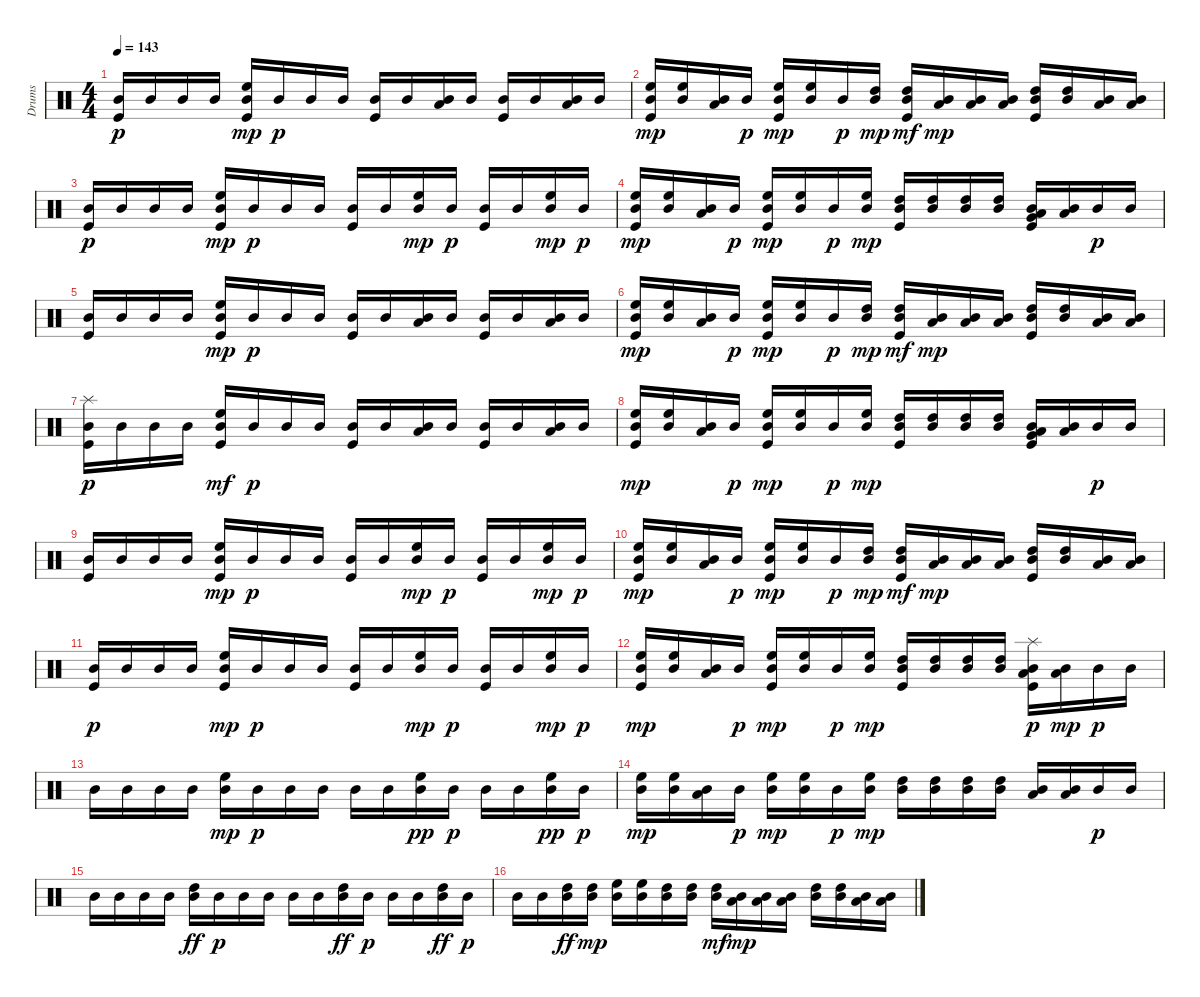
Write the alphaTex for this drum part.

\track ("Drums" "Drums") {instrument percussion}
\staff {score}
\articulation defaults
\ts (4 4)
\tempo 143
\clef neutral
\ks c
("Kick (hit)" "Mid Tom (hit)").16{dy p} "Mid Tom (hit)".16 "Mid Tom (hit)".16 "Mid Tom (hit)".16 ("Kick (hit)" "Mid Tom (hit)" "High Floor Tom (hit)").16{dy mp} "Mid Tom (hit)".16{dy p} "Mid Tom (hit)".16 "Mid Tom (hit)".16 ("Kick (hit)" "Mid Tom (hit)").16 "Mid Tom (hit)".16 ("Mid Tom (hit)" "Low Tom (hit)").16 "Mid Tom (hit)".16 ("Kick (hit)" "Mid Tom (hit)").16 "Mid Tom (hit)".16 ("Mid Tom (hit)" "Low Tom (hit)").16 "Mid Tom (hit)".16 |
("Kick (hit)" "Mid Tom (hit)" "High Floor Tom (hit)").16{dy mp} ("Mid Tom (hit)" "High Floor Tom (hit)").16 ("Mid Tom (hit)" "Low Tom (hit)").16 "Mid Tom (hit)".16{dy p} ("Kick (hit)" "Mid Tom (hit)" "High Floor Tom (hit)").16{dy mp} ("Mid Tom (hit)" "High Floor Tom (hit)").16 "Mid Tom (hit)".16{dy p} ("Mid Tom (hit)" "High Tom (hit)").16{dy mp} ("Kick (hit)" "Mid Tom (hit)" "High Tom (hit)").16{dy mf} ("Mid Tom (hit)" "Low Tom (hit)").16{dy mp} ("Mid Tom (hit)" "Low Tom (hit)").16 ("Mid Tom (hit)" "Low Tom (hit)").16 ("Kick (hit)" "Mid Tom (hit)" "High Tom (hit)").16 ("Mid Tom (hit)" "High Tom (hit)").16 ("Mid Tom (hit)" "Low Tom (hit)").16 ("Mid Tom (hit)" "Low Tom (hit)").16 |
("Kick (hit)" "Mid Tom (hit)").16{dy p} "Mid Tom (hit)".16 "Mid Tom (hit)".16 "Mid Tom (hit)".16 ("Kick (hit)" "Mid Tom (hit)" "High Floor Tom (hit)").16{dy mp} "Mid Tom (hit)".16{dy p} "Mid Tom (hit)".16 "Mid Tom (hit)".16 ("Kick (hit)" "Mid Tom (hit)").16 "Mid Tom (hit)".16 ("Mid Tom (hit)" "High Floor Tom (hit)").16{dy mp} "Mid Tom (hit)".16{dy p} ("Kick (hit)" "Mid Tom (hit)").16 "Mid Tom (hit)".16 ("Mid Tom (hit)" "High Floor Tom (hit)").16{dy mp} "Mid Tom (hit)".16{dy p} |
("Kick (hit)" "Mid Tom (hit)" "High Floor Tom (hit)").16{dy mp} ("Mid Tom (hit)" "High Floor Tom (hit)").16 ("Mid Tom (hit)" "Low Tom (hit)").16 "Mid Tom (hit)".16{dy p} ("Kick (hit)" "Mid Tom (hit)" "High Floor Tom (hit)").16{dy mp} ("Mid Tom (hit)" "High Floor Tom (hit)").16 "Mid Tom (hit)".16{dy p} ("Mid Tom (hit)" "High Floor Tom (hit)").16{dy mp} ("Kick (hit)" "Mid Tom (hit)" "High Tom (hit)").16 ("Mid Tom (hit)" "High Tom (hit)").16 ("Mid Tom (hit)" "High Tom (hit)").16 ("Mid Tom (hit)" "High Tom (hit)").16 ("Kick (hit)" "Mid Tom (hit)" "Low Tom (hit)" "Very Low Tom (hit)").16 ("Mid Tom (hit)" "Low Tom (hit)").16 "Mid Tom (hit)".16{dy p} "Mid Tom (hit)".16 |
("Kick (hit)" "Mid Tom (hit)").16 "Mid Tom (hit)".16 "Mid Tom (hit)".16 "Mid Tom (hit)".16 ("Kick (hit)" "Mid Tom (hit)" "High Floor Tom (hit)").16{dy mp} "Mid Tom (hit)".16{dy p} "Mid Tom (hit)".16 "Mid Tom (hit)".16 ("Kick (hit)" "Mid Tom (hit)").16 "Mid Tom (hit)".16 ("Mid Tom (hit)" "Low Tom (hit)").16 "Mid Tom (hit)".16 ("Kick (hit)" "Mid Tom (hit)").16 "Mid Tom (hit)".16 ("Mid Tom (hit)" "Low Tom (hit)").16 "Mid Tom (hit)".16 |
("Kick (hit)" "Mid Tom (hit)" "High Floor Tom (hit)").16{dy mp} ("Mid Tom (hit)" "High Floor Tom (hit)").16 ("Mid Tom (hit)" "Low Tom (hit)").16 "Mid Tom (hit)".16{dy p} ("Kick (hit)" "Mid Tom (hit)" "High Floor Tom (hit)").16{dy mp} ("Mid Tom (hit)" "High Floor Tom (hit)").16 "Mid Tom (hit)".16{dy p} ("Mid Tom (hit)" "High Tom (hit)").16{dy mp} ("Kick (hit)" "Mid Tom (hit)" "High Tom (hit)").16{dy mf} ("Mid Tom (hit)" "Low Tom (hit)").16{dy mp} ("Mid Tom (hit)" "Low Tom (hit)").16 ("Mid Tom (hit)" "Low Tom (hit)").16 ("Kick (hit)" "Mid Tom (hit)" "High Tom (hit)").16 ("Mid Tom (hit)" "High Tom (hit)").16 ("Mid Tom (hit)" "Low Tom (hit)").16 ("Mid Tom (hit)" "Low Tom (hit)").16 |
("Kick (hit)" "Mid Tom (hit)" "Splash (hit)").16{dy p} "Mid Tom (hit)".16 "Mid Tom (hit)".16 "Mid Tom (hit)".16 ("Kick (hit)" "Mid Tom (hit)" "High Floor Tom (hit)").16{dy mf} "Mid Tom (hit)".16{dy p} "Mid Tom (hit)".16 "Mid Tom (hit)".16 ("Kick (hit)" "Mid Tom (hit)").16 "Mid Tom (hit)".16 ("Mid Tom (hit)" "Low Tom (hit)").16 "Mid Tom (hit)".16 ("Kick (hit)" "Mid Tom (hit)").16 "Mid Tom (hit)".16 ("Mid Tom (hit)" "Low Tom (hit)").16 "Mid Tom (hit)".16 |
("Kick (hit)" "Mid Tom (hit)" "High Floor Tom (hit)").16{dy mp} ("Mid Tom (hit)" "High Floor Tom (hit)").16 ("Mid Tom (hit)" "Low Tom (hit)").16 "Mid Tom (hit)".16{dy p} ("Kick (hit)" "Mid Tom (hit)" "High Floor Tom (hit)").16{dy mp} ("Mid Tom (hit)" "High Floor Tom (hit)").16 "Mid Tom (hit)".16{dy p} ("Mid Tom (hit)" "High Floor Tom (hit)").16{dy mp} ("Kick (hit)" "Mid Tom (hit)" "High Tom (hit)").16 ("Mid Tom (hit)" "High Tom (hit)").16 ("Mid Tom (hit)" "High Tom (hit)").16 ("Mid Tom (hit)" "High Tom (hit)").16 ("Kick (hit)" "Mid Tom (hit)" "Low Tom (hit)" "Very Low Tom (hit)").16 ("Mid Tom (hit)" "Low Tom (hit)").16 "Mid Tom (hit)".16{dy p} "Mid Tom (hit)".16 |
("Kick (hit)" "Mid Tom (hit)").16 "Mid Tom (hit)".16 "Mid Tom (hit)".16 "Mid Tom (hit)".16 ("Kick (hit)" "Mid Tom (hit)" "High Floor Tom (hit)").16{dy mp} "Mid Tom (hit)".16{dy p} "Mid Tom (hit)".16 "Mid Tom (hit)".16 ("Kick (hit)" "Mid Tom (hit)").16 "Mid Tom (hit)".16 ("Mid Tom (hit)" "High Floor Tom (hit)").16{dy mp} "Mid Tom (hit)".16{dy p} ("Kick (hit)" "Mid Tom (hit)").16 "Mid Tom (hit)".16 ("Mid Tom (hit)" "High Floor Tom (hit)").16{dy mp} "Mid Tom (hit)".16{dy p} |
("Kick (hit)" "Mid Tom (hit)" "High Floor Tom (hit)").16{dy mp} ("Mid Tom (hit)" "High Floor Tom (hit)").16 ("Mid Tom (hit)" "Low Tom (hit)").16 "Mid Tom (hit)".16{dy p} ("Kick (hit)" "Mid Tom (hit)" "High Floor Tom (hit)").16{dy mp} ("Mid Tom (hit)" "High Floor Tom (hit)").16 "Mid Tom (hit)".16{dy p} ("Mid Tom (hit)" "High Tom (hit)").16{dy mp} ("Kick (hit)" "Mid Tom (hit)" "High Tom (hit)").16{dy mf} ("Mid Tom (hit)" "Low Tom (hit)").16{dy mp} ("Mid Tom (hit)" "Low Tom (hit)").16 ("Mid Tom (hit)" "Low Tom (hit)").16 ("Kick (hit)" "Mid Tom (hit)" "High Tom (hit)").16 ("Mid Tom (hit)" "High Tom (hit)").16 ("Mid Tom (hit)" "Low Tom (hit)").16 ("Mid Tom (hit)" "Low Tom (hit)").16 |
("Kick (hit)" "Mid Tom (hit)").16{dy p} "Mid Tom (hit)".16 "Mid Tom (hit)".16 "Mid Tom (hit)".16 ("Kick (hit)" "Mid Tom (hit)" "High Floor Tom (hit)").16{dy mp} "Mid Tom (hit)".16{dy p} "Mid Tom (hit)".16 "Mid Tom (hit)".16 ("Kick (hit)" "Mid Tom (hit)").16 "Mid Tom (hit)".16 ("Mid Tom (hit)" "High Floor Tom (hit)").16{dy mp} "Mid Tom (hit)".16{dy p} ("Kick (hit)" "Mid Tom (hit)").16 "Mid Tom (hit)".16 ("Mid Tom (hit)" "High Floor Tom (hit)").16{dy mp} "Mid Tom (hit)".16{dy p} |
("Kick (hit)" "Mid Tom (hit)" "High Floor Tom (hit)").16{dy mp} ("Mid Tom (hit)" "High Floor Tom (hit)").16 ("Mid Tom (hit)" "Low Tom (hit)").16 "Mid Tom (hit)".16{dy p} ("Kick (hit)" "Mid Tom (hit)" "High Floor Tom (hit)").16{dy mp} ("Mid Tom (hit)" "High Floor Tom (hit)").16 "Mid Tom (hit)".16{dy p} ("Mid Tom (hit)" "High Floor Tom (hit)").16{dy mp} ("Kick (hit)" "Mid Tom (hit)" "High Tom (hit)").16 ("Mid Tom (hit)" "High Tom (hit)").16 ("Mid Tom (hit)" "High Tom (hit)").16 ("Mid Tom (hit)" "High Tom (hit)").16 ("Kick (hit)" "Mid Tom (hit)" "Low Tom (hit)" "Splash (hit)").16{dy p} ("Mid Tom (hit)" "Low Tom (hit)").16{dy mp} "Mid Tom (hit)".16{dy p} "Mid Tom (hit)".16 |
"Mid Tom (hit)".16 "Mid Tom (hit)".16 "Mid Tom (hit)".16 "Mid Tom (hit)".16 ("Mid Tom (hit)" "High Floor Tom (hit)").16{dy mp} "Mid Tom (hit)".16{dy p} "Mid Tom (hit)".16 "Mid Tom (hit)".16 "Mid Tom (hit)".16 "Mid Tom (hit)".16 ("Mid Tom (hit)" "High Floor Tom (hit)").16{dy pp} "Mid Tom (hit)".16{dy p} "Mid Tom (hit)".16 "Mid Tom (hit)".16 ("Mid Tom (hit)" "High Floor Tom (hit)").16{dy pp} "Mid Tom (hit)".16{dy p} |
("Mid Tom (hit)" "High Floor Tom (hit)").16{dy mp} ("Mid Tom (hit)" "High Floor Tom (hit)").16 ("Mid Tom (hit)" "Low Tom (hit)").16 "Mid Tom (hit)".16{dy p} ("Mid Tom (hit)" "High Floor Tom (hit)").16{dy mp} ("Mid Tom (hit)" "High Floor Tom (hit)").16 "Mid Tom (hit)".16{dy p} ("Mid Tom (hit)" "High Floor Tom (hit)").16{dy mp} ("Mid Tom (hit)" "High Tom (hit)").16 ("Mid Tom (hit)" "High Tom (hit)").16 ("Mid Tom (hit)" "High Tom (hit)").16 ("Mid Tom (hit)" "High Tom (hit)").16 ("Mid Tom (hit)" "Low Tom (hit)").16 ("Mid Tom (hit)" "Low Tom (hit)").16 "Mid Tom (hit)".16{dy p} "Mid Tom (hit)".16 |
"Mid Tom (hit)".16 "Mid Tom (hit)".16 "Mid Tom (hit)".16 "Mid Tom (hit)".16 ("Mid Tom (hit)" "High Tom (hit)").16{dy ff} "Mid Tom (hit)".16{dy p} "Mid Tom (hit)".16 "Mid Tom (hit)".16 "Mid Tom (hit)".16 "Mid Tom (hit)".16 ("Mid Tom (hit)" "High Tom (hit)").16{dy ff} "Mid Tom (hit)".16{dy p} "Mid Tom (hit)".16 "Mid Tom (hit)".16 ("Mid Tom (hit)" "High Tom (hit)").16{dy ff} "Mid Tom (hit)".16{dy p} |
"Mid Tom (hit)".16 "Mid Tom (hit)".16 ("Mid Tom (hit)" "High Tom (hit)").16{dy ff} ("Mid Tom (hit)" "High Tom (hit)").16{dy mp} ("Mid Tom (hit)" "High Floor Tom (hit)").16 ("Mid Tom (hit)" "High Floor Tom (hit)").16 ("Mid Tom (hit)" "High Tom (hit)").16 ("Mid Tom (hit)" "High Tom (hit)").16 ("Mid Tom (hit)" "High Tom (hit)").16{dy mf} ("Mid Tom (hit)" "Low Tom (hit)").16{dy mp} ("Mid Tom (hit)" "Low Tom (hit)").16 ("Mid Tom (hit)" "Low Tom (hit)").16 ("Mid Tom (hit)" "High Tom (hit)").16 ("Mid Tom (hit)" "High Tom (hit)").16 ("Mid Tom (hit)" "Low Tom (hit)").16 ("Mid Tom (hit)" "Low Tom (hit)").16
